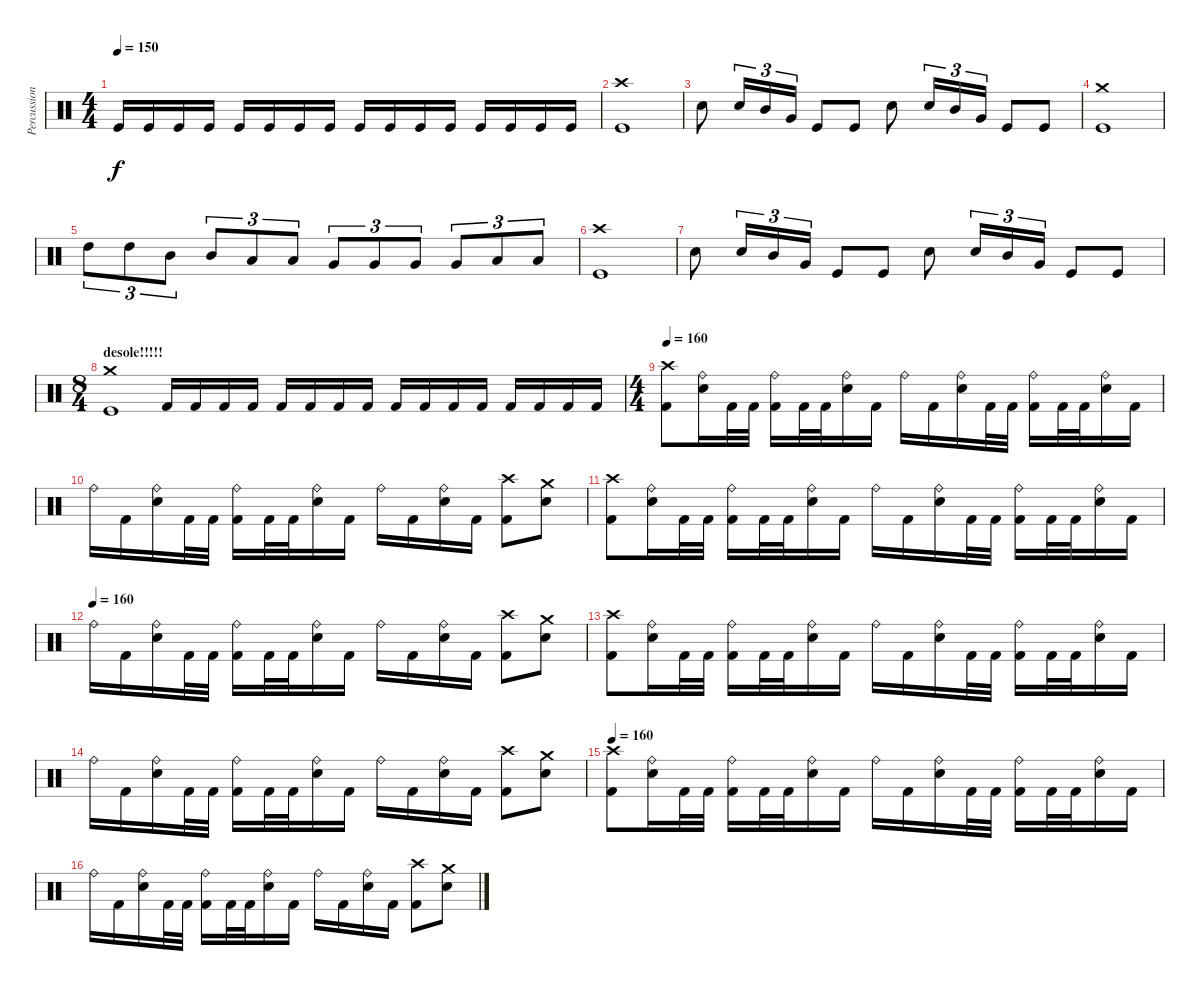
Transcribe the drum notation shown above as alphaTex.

\track ("Percussions" "Percussion") {instrument percussion}
\staff {score}
\articulation defaults
\ts (4 4)
\tempo 150
\clef neutral
\ks c "Kick (hit)".16{dy f} "Kick (hit)".16 "Kick (hit)".16 "Kick (hit)".16 "Kick (hit)".16 "Kick (hit)".16 "Kick (hit)".16 "Kick (hit)".16 "Kick (hit)".16 "Kick (hit)".16 "Kick (hit)".16 "Kick (hit)".16 "Kick (hit)".16 "Kick (hit)".16 "Kick (hit)".16 "Kick (hit)".16
|
("Crash high (hit)" "Kick (hit)").1 |
"Snare (hit) 2".8 "Snare (hit) 2".16{tu (3 2)} "Mid Tom (hit)".16{tu (3 2)} "Very Low Tom (hit)".16{tu (3 2)} "Kick (hit)".8 "Kick (hit)".8 "Snare (hit) 2".8 "Snare (hit) 2".16{tu (3 2)} "Mid Tom (hit)".16{tu (3 2)} "Very Low Tom (hit)".16{tu (3 2)} "Kick (hit)".8 "Kick (hit)".8 |
("Crash medium (hit)" "Kick (hit)").1 |
"High Tom (hit)".8{tu (3 2)} "High Tom (hit)".8{tu (3 2)} "Mid Tom (hit)".8{tu (3 2)} "Mid Tom (hit)".8{tu (3 2)} "Low Tom (hit)".8{tu (3 2)} "Low Tom (hit)".8{tu (3 2)} "Very Low Tom (hit)".8{tu (3 2)} "Very Low Tom (hit)".8{tu (3 2)} "Very Low Tom (hit)".8{tu (3 2)} "Very Low Tom (hit)".8{tu (3 2)} "Low Floor Tom (hit)".8{tu (3 2)} "Low Floor Tom (hit)".8{tu (3 2)} |
("Crash high (hit)" "Kick (hit)").1 |
"Snare (hit) 2".8 "Snare (hit) 2".16{tu (3 2)} "Mid Tom (hit)".16{tu (3 2)} "Very Low Tom (hit)".16{tu (3 2)} "Kick (hit)".8 "Kick (hit)".8 "Snare (hit) 2".8 "Snare (hit) 2".16{tu (3 2)} "Mid Tom (hit)".16{tu (3 2)} "Very Low Tom (hit)".16{tu (3 2)} "Kick (hit)".8 "Kick (hit)".8 |
\ts (8 4)
\section ("" "desole!!!!!")
("Crash medium (hit)" "Kick (hit)").1 "Kick (hit) 2".16 "Kick (hit) 2".16 "Kick (hit) 2".16 "Kick (hit) 2".16 "Kick (hit) 2".16 "Kick (hit) 2".16 "Kick (hit) 2".16 "Kick (hit) 2".16 "Kick (hit) 2".16 "Kick (hit) 2".16 "Kick (hit) 2".16 "Kick (hit) 2".16 "Kick (hit) 2".16 "Kick (hit) 2".16 "Kick (hit) 2".16 "Kick (hit) 2".16 |
\ts (4 4)
\tempo 160
("Crash high (hit)" "Kick (hit) 2").8 ("Ride (bell)" "Snare (hit) 2").16 "Kick (hit) 2".32 "Kick (hit) 2".32 ("Ride (bell)" "Kick (hit) 2").16 "Kick (hit) 2".32 "Kick (hit) 2".32 ("Ride (bell)" "Snare (hit) 2").16 "Kick (hit) 2".16 "Ride (bell)".16 "Kick (hit) 2".16 ("Ride (bell)" "Snare (hit) 2").16 "Kick (hit) 2".32 "Kick (hit) 2".32 ("Ride (bell)" "Kick (hit) 2").16 "Kick (hit) 2".32 "Kick (hit) 2".32 ("Ride (bell)" "Snare (hit) 2").16 "Kick (hit) 2".16 |
"Ride (bell)".16 "Kick (hit) 2".16 ("Ride (bell)" "Snare (hit) 2").16 "Kick (hit) 2".32 "Kick (hit) 2".32 ("Ride (bell)" "Kick (hit) 2").16 "Kick (hit) 2".32 "Kick (hit) 2".32 ("Ride (bell)" "Snare (hit) 2").16 "Kick (hit) 2".16 "Ride (bell)".16 "Kick (hit) 2".16 ("Ride (bell)" "Snare (hit) 2").16 "Kick (hit) 2".16 ("Crash high (hit)" "Kick (hit) 2").8 ("Crash medium (hit)" "Snare (hit) 2").8 |
("Crash high (hit)" "Kick (hit) 2").8 ("Ride (bell)" "Snare (hit) 2").16 "Kick (hit) 2".32 "Kick (hit) 2".32 ("Ride (bell)" "Kick (hit) 2").16 "Kick (hit) 2".32 "Kick (hit) 2".32 ("Ride (bell)" "Snare (hit) 2").16 "Kick (hit) 2".16 "Ride (bell)".16 "Kick (hit) 2".16 ("Ride (bell)" "Snare (hit) 2").16 "Kick (hit) 2".32 "Kick (hit) 2".32 ("Ride (bell)" "Kick (hit) 2").16 "Kick (hit) 2".32 "Kick (hit) 2".32 ("Ride (bell)" "Snare (hit) 2").16 "Kick (hit) 2".16 |
\tempo (160)
"Ride (bell)".16 "Kick (hit) 2".16 ("Ride (bell)" "Snare (hit) 2").16 "Kick (hit) 2".32 "Kick (hit) 2".32 ("Ride (bell)" "Kick (hit) 2").16 "Kick (hit) 2".32 "Kick (hit) 2".32 ("Ride (bell)" "Snare (hit) 2").16 "Kick (hit) 2".16 "Ride (bell)".16 "Kick (hit) 2".16 ("Ride (bell)" "Snare (hit) 2").16 "Kick (hit) 2".16 ("Crash high (hit)" "Kick (hit) 2").8 ("Crash medium (hit)" "Snare (hit) 2").8 |
("Crash high (hit)" "Kick (hit) 2").8 ("Ride (bell)" "Snare (hit) 2").16 "Kick (hit) 2".32 "Kick (hit) 2".32 ("Ride (bell)" "Kick (hit) 2").16 "Kick (hit) 2".32 "Kick (hit) 2".32 ("Ride (bell)" "Snare (hit) 2").16 "Kick (hit) 2".16 "Ride (bell)".16 "Kick (hit) 2".16 ("Ride (bell)" "Snare (hit) 2").16 "Kick (hit) 2".32 "Kick (hit) 2".32 ("Ride (bell)" "Kick (hit) 2").16 "Kick (hit) 2".32 "Kick (hit) 2".32 ("Ride (bell)" "Snare (hit) 2").16 "Kick (hit) 2".16 |
"Ride (bell)".16 "Kick (hit) 2".16 ("Ride (bell)" "Snare (hit) 2").16 "Kick (hit) 2".32 "Kick (hit) 2".32 ("Ride (bell)" "Kick (hit) 2").16 "Kick (hit) 2".32 "Kick (hit) 2".32 ("Ride (bell)" "Snare (hit) 2").16 "Kick (hit) 2".16 "Ride (bell)".16 "Kick (hit) 2".16 ("Ride (bell)" "Snare (hit) 2").16 "Kick (hit) 2".16 ("Crash high (hit)" "Kick (hit) 2").8 ("Crash medium (hit)" "Snare (hit) 2").8 |
\tempo 160
("Crash high (hit)" "Kick (hit) 2").8 ("Ride (bell)" "Snare (hit) 2").16 "Kick (hit) 2".32 "Kick (hit) 2".32 ("Ride (bell)" "Kick (hit) 2").16 "Kick (hit) 2".32 "Kick (hit) 2".32 ("Ride (bell)" "Snare (hit) 2").16 "Kick (hit) 2".16 "Ride (bell)".16 "Kick (hit) 2".16 ("Ride (bell)" "Snare (hit) 2").16 "Kick (hit) 2".32 "Kick (hit) 2".32 ("Ride (bell)" "Kick (hit) 2").16 "Kick (hit) 2".32 "Kick (hit) 2".32 ("Ride (bell)" "Snare (hit) 2").16 "Kick (hit) 2".16 |
"Ride (bell)".16 "Kick (hit) 2".16 ("Ride (bell)" "Snare (hit) 2").16 "Kick (hit) 2".32 "Kick (hit) 2".32 ("Ride (bell)" "Kick (hit) 2").16 "Kick (hit) 2".32 "Kick (hit) 2".32 ("Ride (bell)" "Snare (hit) 2").16 "Kick (hit) 2".16 "Ride (bell)".16 "Kick (hit) 2".16 ("Ride (bell)" "Snare (hit) 2").16 "Kick (hit) 2".16 ("Crash high (hit)" "Kick (hit) 2").8 ("Crash medium (hit)" "Snare (hit) 2").8
